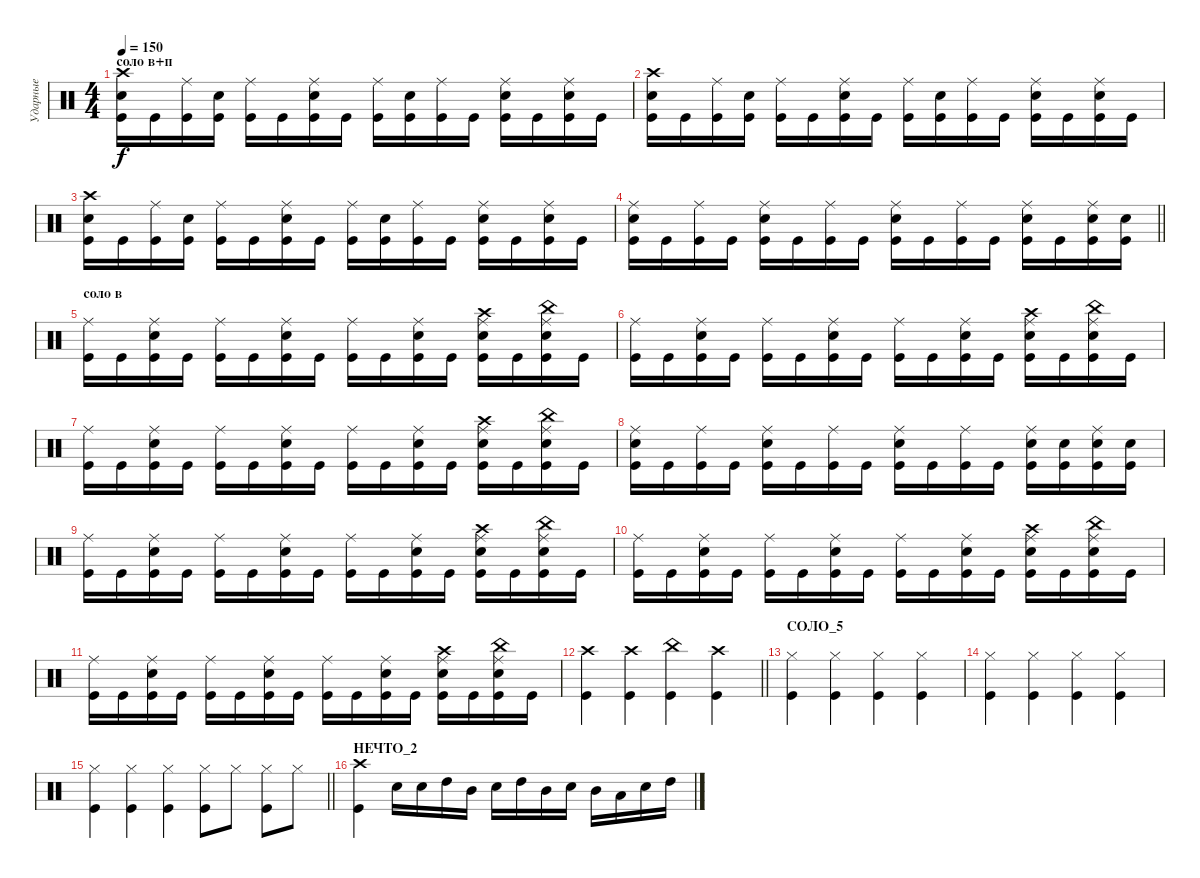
\track ("Ударные" "Ударные") {instrument percussion}
\staff {score}
\articulation defaults
\ts (4 4)
\section ("" "соло в+п")
\tempo 150
\clef neutral
\ks c
("Kick (hit)" "Crash high (hit)" "Snare (hit) 2").16{dy f} "Kick (hit)".16 ("Kick (hit)" "Ride (middle)").16 ("Kick (hit)" "Snare (hit) 2").16 ("Kick (hit)" "Ride (middle)").16 "Kick (hit)".16 ("Kick (hit)" "Snare (hit) 2" "Ride (middle)").16 "Kick (hit)".16 ("Kick (hit)" "Ride (middle)").16 ("Kick (hit)" "Snare (hit) 2").16 ("Kick (hit)" "Ride (middle)").16 "Kick (hit)".16 ("Kick (hit)" "Ride (middle)" "Snare (hit) 2").16 "Kick (hit)".16 ("Kick (hit)" "Ride (middle)" "Snare (hit) 2").16 "Kick (hit)".16 |
("Kick (hit)" "Crash high (hit)" "Snare (hit) 2").16 "Kick (hit)".16 ("Kick (hit)" "Ride (middle)").16 ("Kick (hit)" "Snare (hit) 2").16 ("Kick (hit)" "Ride (middle)").16 "Kick (hit)".16 ("Kick (hit)" "Snare (hit) 2" "Ride (middle)").16 "Kick (hit)".16 ("Kick (hit)" "Ride (middle)").16 ("Kick (hit)" "Snare (hit) 2").16 ("Kick (hit)" "Ride (middle)").16 "Kick (hit)".16 ("Kick (hit)" "Ride (middle)" "Snare (hit) 2").16 "Kick (hit)".16 ("Kick (hit)" "Ride (middle)" "Snare (hit) 2").16 "Kick (hit)".16 |
("Kick (hit)" "Crash high (hit)" "Snare (hit) 2").16 "Kick (hit)".16 ("Kick (hit)" "Ride (middle)").16 ("Kick (hit)" "Snare (hit) 2").16 ("Kick (hit)" "Ride (middle)").16 "Kick (hit)".16 ("Kick (hit)" "Snare (hit) 2" "Ride (middle)").16 "Kick (hit)".16 ("Kick (hit)" "Ride (middle)").16 ("Kick (hit)" "Snare (hit) 2").16 ("Kick (hit)" "Ride (middle)").16 "Kick (hit)".16 ("Kick (hit)" "Ride (middle)" "Snare (hit) 2").16 "Kick (hit)".16 ("Kick (hit)" "Ride (middle)" "Snare (hit) 2").16 "Kick (hit)".16 |
\barLineRight lightlight
("Ride (middle)" "Kick (hit)" "Snare (hit) 2").16 "Kick (hit)".16 ("Ride (middle)" "Kick (hit)").16 "Kick (hit)".16 ("Ride (middle)" "Kick (hit)" "Snare (hit) 2").16 "Kick (hit)".16 ("Ride (middle)" "Kick (hit)").16 "Kick (hit)".16 ("Ride (middle)" "Kick (hit)" "Snare (hit) 2").16 "Kick (hit)".16 ("Ride (middle)" "Kick (hit)").16 "Kick (hit)".16 ("Ride (middle)" "Kick (hit)" "Snare (hit) 2").16 "Kick (hit)".16 ("Kick (hit)" "Ride (middle)" "Snare (hit) 2").16 ("Kick (hit)" "Snare (hit) 2").16 |
\section ("" "соло в")
("Kick (hit)" "Ride (middle)").16 "Kick (hit)".16 ("Kick (hit)" "Snare (hit) 2" "Ride (middle)").16 "Kick (hit)".16 ("Kick (hit)" "Ride (middle)").16 "Kick (hit)".16 ("Kick (hit)" "Snare (hit) 2" "Ride (middle)").16 "Kick (hit)".16 ("Kick (hit)" "Ride (middle)").16 "Kick (hit)".16 ("Kick (hit)" "Snare (hit) 2" "Ride (middle)").16 "Kick (hit)".16 ("Kick (hit)" "Ride (middle)" "Crash high (hit)" "Snare (hit) 2").16 "Kick (hit)".16 ("Kick (hit)" "Snare (hit) 2" "Ride (middle)" "China (hit)").16 "Kick (hit)".16 |
("Kick (hit)" "Ride (middle)").16 "Kick (hit)".16 ("Kick (hit)" "Snare (hit) 2" "Ride (middle)").16 "Kick (hit)".16 ("Kick (hit)" "Ride (middle)").16 "Kick (hit)".16 ("Kick (hit)" "Snare (hit) 2" "Ride (middle)").16 "Kick (hit)".16 ("Kick (hit)" "Ride (middle)").16 "Kick (hit)".16 ("Kick (hit)" "Snare (hit) 2" "Ride (middle)").16 "Kick (hit)".16 ("Kick (hit)" "Ride (middle)" "Crash high (hit)" "Snare (hit) 2").16 "Kick (hit)".16 ("Kick (hit)" "Snare (hit) 2" "Ride (middle)" "China (hit)").16 "Kick (hit)".16 |
("Kick (hit)" "Ride (middle)").16 "Kick (hit)".16 ("Kick (hit)" "Snare (hit) 2" "Ride (middle)").16 "Kick (hit)".16 ("Kick (hit)" "Ride (middle)").16 "Kick (hit)".16 ("Kick (hit)" "Snare (hit) 2" "Ride (middle)").16 "Kick (hit)".16 ("Kick (hit)" "Ride (middle)").16 "Kick (hit)".16 ("Kick (hit)" "Snare (hit) 2" "Ride (middle)").16 "Kick (hit)".16 ("Kick (hit)" "Ride (middle)" "Crash high (hit)" "Snare (hit) 2").16 "Kick (hit)".16 ("Kick (hit)" "Snare (hit) 2" "Ride (middle)" "China (hit)").16 "Kick (hit)".16 |
("Ride (middle)" "Kick (hit)" "Snare (hit) 2").16 "Kick (hit)".16 ("Ride (middle)" "Kick (hit)").16 "Kick (hit)".16 ("Ride (middle)" "Kick (hit)" "Snare (hit) 2").16 "Kick (hit)".16 ("Ride (middle)" "Kick (hit)").16 "Kick (hit)".16 ("Ride (middle)" "Kick (hit)" "Snare (hit) 2").16 "Kick (hit)".16 ("Ride (middle)" "Kick (hit)").16 "Kick (hit)".16 ("Ride (middle)" "Kick (hit)" "Snare (hit) 2").16 ("Kick (hit)" "Snare (hit) 2").16 ("Kick (hit)" "Ride (middle)" "Snare (hit) 2").16 ("Kick (hit)" "Snare (hit) 2").16 |
("Kick (hit)" "Ride (middle)").16 "Kick (hit)".16 ("Kick (hit)" "Snare (hit) 2" "Ride (middle)").16 "Kick (hit)".16 ("Kick (hit)" "Ride (middle)").16 "Kick (hit)".16 ("Kick (hit)" "Snare (hit) 2" "Ride (middle)").16 "Kick (hit)".16 ("Kick (hit)" "Ride (middle)").16 "Kick (hit)".16 ("Kick (hit)" "Snare (hit) 2" "Ride (middle)").16 "Kick (hit)".16 ("Kick (hit)" "Ride (middle)" "Crash high (hit)" "Snare (hit) 2").16 "Kick (hit)".16 ("Kick (hit)" "Snare (hit) 2" "Ride (middle)" "China (hit)").16 "Kick (hit)".16 |
("Kick (hit)" "Ride (middle)").16 "Kick (hit)".16 ("Kick (hit)" "Snare (hit) 2" "Ride (middle)").16 "Kick (hit)".16 ("Kick (hit)" "Ride (middle)").16 "Kick (hit)".16 ("Kick (hit)" "Snare (hit) 2" "Ride (middle)").16 "Kick (hit)".16 ("Kick (hit)" "Ride (middle)").16 "Kick (hit)".16 ("Kick (hit)" "Snare (hit) 2" "Ride (middle)").16 "Kick (hit)".16 ("Kick (hit)" "Ride (middle)" "Crash high (hit)" "Snare (hit) 2").16 "Kick (hit)".16 ("Kick (hit)" "Snare (hit) 2" "Ride (middle)" "China (hit)").16 "Kick (hit)".16 |
("Kick (hit)" "Ride (middle)").16 "Kick (hit)".16 ("Kick (hit)" "Snare (hit) 2" "Ride (middle)").16 "Kick (hit)".16 ("Kick (hit)" "Ride (middle)").16 "Kick (hit)".16 ("Kick (hit)" "Snare (hit) 2" "Ride (middle)").16 "Kick (hit)".16 ("Kick (hit)" "Ride (middle)").16 "Kick (hit)".16 ("Kick (hit)" "Snare (hit) 2" "Ride (middle)").16 "Kick (hit)".16 ("Kick (hit)" "Ride (middle)" "Crash high (hit)" "Snare (hit) 2").16 "Kick (hit)".16 ("Kick (hit)" "Snare (hit) 2" "Ride (middle)" "China (hit)").16 "Kick (hit)".16 |
\barLineRight lightlight
("Kick (hit)" "Crash high (hit)").4 ("Kick (hit)" "Crash high (hit)").4 ("Kick (hit)" "China (hit)").4 ("Kick (hit)" "Crash high (hit)").4 |
\section ("" "СОЛО_5")
("Kick (hit)" "Hi-Hat (closed)").4 ("Kick (hit)" "Hi-Hat (closed)").4 ("Kick (hit)" "Hi-Hat (closed)").4 ("Kick (hit)" "Hi-Hat (closed)").4 |
("Kick (hit)" "Hi-Hat (closed)").4 ("Kick (hit)" "Hi-Hat (closed)").4 ("Kick (hit)" "Hi-Hat (closed)").4 ("Kick (hit)" "Hi-Hat (closed)").4 |
\barLineRight lightlight
("Kick (hit)" "Hi-Hat (closed)").4 ("Kick (hit)" "Hi-Hat (closed)").4 ("Kick (hit)" "Hi-Hat (closed)").4 ("Kick (hit)" "Hi-Hat (closed)").8 "Hi-Hat (closed)".8 ("Kick (hit)" "Hi-Hat (closed)").8 "Hi-Hat (closed)".8 |
\section ("" "НЕЧТО_2")
("Crash high (hit)" "Kick (hit)").4 "Snare (hit) 2".16 "Snare (hit) 2".16 "High Tom (hit)".16 "Mid Tom (hit)".16 "Snare (hit) 2".16 "High Tom (hit)".16 "Mid Tom (hit)".16 "Snare (hit) 2".16 "Mid Tom (hit)".16 "Low Tom (hit)".16 "Snare (hit) 2".16 "High Tom (hit)".16
